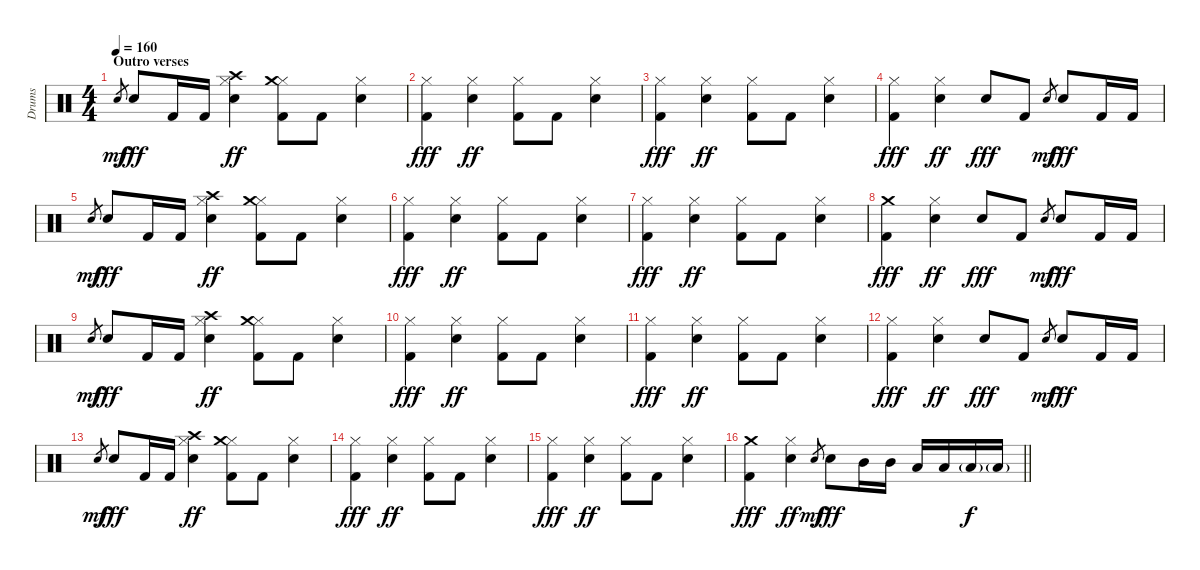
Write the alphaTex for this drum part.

\track ("Drums" "Drums") {instrument percussion}
\staff {score}
\articulation defaults
\ts (4 4)
\section ("" "Outro verses")
\tempo 160
\clef neutral
\ks c "Electric Snare (hit)".8{gr dy mf} "Electric Snare (hit)".8{dy fff} "Kick (hit) 2".16 "Kick (hit) 2".16
("Hi-Hat (closed)" "Crash high (hit)" "Electric Snare (hit)").4{dy ff} ("Hi-Hat (closed)" "Crash medium (hit)" "Kick (hit) 2").8 "Kick (hit) 2".8 ("Hi-Hat (closed)" "Electric Snare (hit)").4 |
("Hi-Hat (closed)" "Kick (hit) 2").4{dy fff} ("Hi-Hat (closed)" "Electric Snare (hit)").4{dy ff} ("Hi-Hat (closed)" "Kick (hit) 2").8 "Kick (hit) 2".8 ("Hi-Hat (closed)" "Electric Snare (hit)").4 |
("Hi-Hat (closed)" "Kick (hit) 2").4{dy fff} ("Hi-Hat (closed)" "Electric Snare (hit)").4{dy ff} ("Hi-Hat (closed)" "Kick (hit) 2").8 "Kick (hit) 2".8 ("Hi-Hat (closed)" "Electric Snare (hit)").4 |
("Hi-Hat (closed)" "Kick (hit) 2").4{dy fff} ("Hi-Hat (closed)" "Electric Snare (hit)").4{dy ff} "Electric Snare (hit)".8{dy fff} "Kick (hit) 2".8 "Electric Snare (hit)".8{gr dy mf} "Electric Snare (hit)".8{dy fff} "Kick (hit) 2".16 "Kick (hit) 2".16 |
"Electric Snare (hit)".8{gr dy mf} "Electric Snare (hit)".8{dy fff} "Kick (hit) 2".16 "Kick (hit) 2".16 ("Hi-Hat (closed)" "Crash high (hit)" "Electric Snare (hit)").4{dy ff} ("Hi-Hat (closed)" "Crash medium (hit)" "Kick (hit) 2").8 "Kick (hit) 2".8 ("Hi-Hat (closed)" "Electric Snare (hit)").4 |
("Hi-Hat (closed)" "Kick (hit) 2").4{dy fff} ("Hi-Hat (closed)" "Electric Snare (hit)").4{dy ff} ("Hi-Hat (closed)" "Kick (hit) 2").8 "Kick (hit) 2".8 ("Hi-Hat (closed)" "Electric Snare (hit)").4 |
("Hi-Hat (closed)" "Kick (hit) 2").4{dy fff} ("Hi-Hat (closed)" "Electric Snare (hit)").4{dy ff} ("Hi-Hat (closed)" "Kick (hit) 2").8 "Kick (hit) 2".8 ("Hi-Hat (closed)" "Electric Snare (hit)").4 |
("Crash medium (hit)" "Kick (hit) 2").4{dy fff} ("Hi-Hat (closed)" "Electric Snare (hit)").4{dy ff} "Electric Snare (hit)".8{dy fff} "Kick (hit) 2".8 "Electric Snare (hit)".8{gr dy mf} "Electric Snare (hit)".8{dy fff} "Kick (hit) 2".16 "Kick (hit) 2".16 |
"Electric Snare (hit)".8{gr dy mf} "Electric Snare (hit)".8{dy fff} "Kick (hit) 2".16 "Kick (hit) 2".16 ("Hi-Hat (closed)" "Crash high (hit)" "Electric Snare (hit)").4{dy ff} ("Hi-Hat (closed)" "Crash medium (hit)" "Kick (hit) 2").8 "Kick (hit) 2".8 ("Hi-Hat (closed)" "Electric Snare (hit)").4 |
("Hi-Hat (closed)" "Kick (hit) 2").4{dy fff} ("Hi-Hat (closed)" "Electric Snare (hit)").4{dy ff} ("Hi-Hat (closed)" "Kick (hit) 2").8 "Kick (hit) 2".8 ("Hi-Hat (closed)" "Electric Snare (hit)").4 |
("Hi-Hat (closed)" "Kick (hit) 2").4{dy fff} ("Hi-Hat (closed)" "Electric Snare (hit)").4{dy ff} ("Hi-Hat (closed)" "Kick (hit) 2").8 "Kick (hit) 2".8 ("Hi-Hat (closed)" "Electric Snare (hit)").4 |
("Hi-Hat (closed)" "Kick (hit) 2").4{dy fff} ("Hi-Hat (closed)" "Electric Snare (hit)").4{dy ff} "Electric Snare (hit)".8{dy fff} "Kick (hit) 2".8 "Electric Snare (hit)".8{gr dy mf} "Electric Snare (hit)".8{dy fff} "Kick (hit) 2".16 "Kick (hit) 2".16 |
"Electric Snare (hit)".8{gr dy mf} "Electric Snare (hit)".8{dy fff} "Kick (hit) 2".16 "Kick (hit) 2".16 ("Hi-Hat (closed)" "Crash high (hit)" "Electric Snare (hit)").4{dy ff} ("Hi-Hat (closed)" "Crash medium (hit)" "Kick (hit) 2").8 "Kick (hit) 2".8 ("Hi-Hat (closed)" "Electric Snare (hit)").4 |
("Hi-Hat (closed)" "Kick (hit) 2").4{dy fff} ("Hi-Hat (closed)" "Electric Snare (hit)").4{dy ff} ("Hi-Hat (closed)" "Kick (hit) 2").8 "Kick (hit) 2".8 ("Hi-Hat (closed)" "Electric Snare (hit)").4 |
("Hi-Hat (closed)" "Kick (hit) 2").4{dy fff} ("Hi-Hat (closed)" "Electric Snare (hit)").4{dy ff} ("Hi-Hat (closed)" "Kick (hit) 2").8 "Kick (hit) 2".8 ("Hi-Hat (closed)" "Electric Snare (hit)").4 |
\barLineRight lightlight
("Crash medium (hit)" "Kick (hit) 2").4{dy fff} ("Hi-Hat (closed)" "Electric Snare (hit)").4{dy ff} "Electric Snare (hit)".8{gr dy mf} "Electric Snare (hit)".8{dy fff} "Mid Tom (hit)".16 "Mid Tom (hit)".16 "Low Tom (hit)".16 "Low Tom (hit)".16 "Low Tom (hit)"{g}.16{dy f} "Low Tom (hit)"{g}.16
